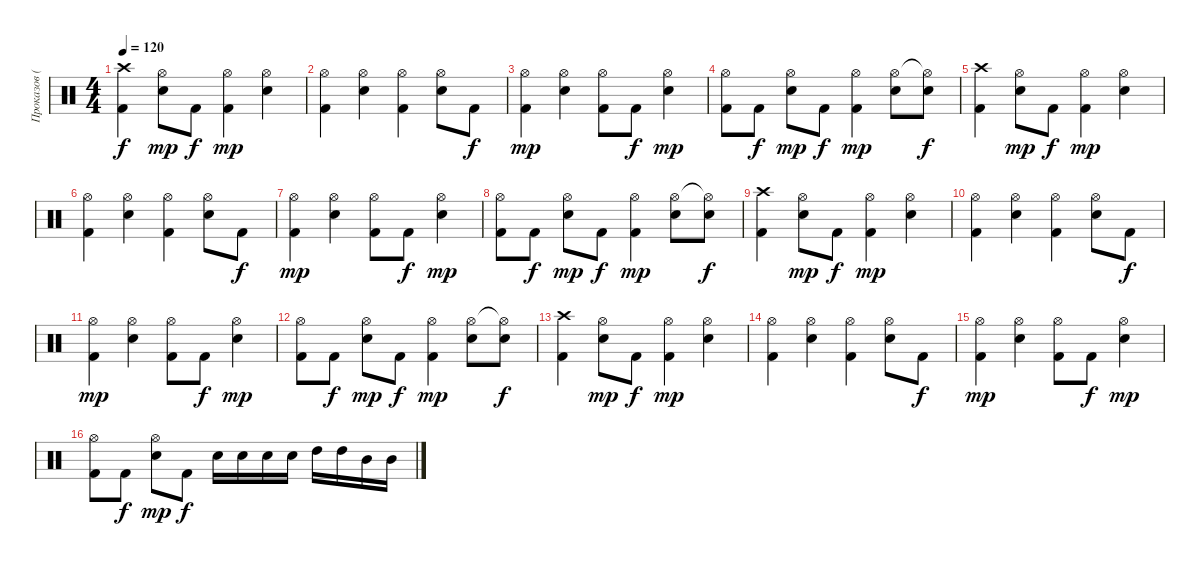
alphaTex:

\track ("Проказов (ударные)" "Проказов (") {instrument percussion}
\staff {score}
\articulation defaults
\ts (4 4)
\tempo 120
\clef neutral
\ks c
("Crash high (hit)" "Kick (hit) 2").4{dy f} ("Hi-Hat (open)" "Snare (hit) 2").8{dy mp} "Kick (hit) 2".8{dy f} ("Hi-Hat (open)" "Kick (hit) 2").4{dy mp} ("Hi-Hat (open)" "Snare (hit) 2").4 |
("Hi-Hat (open)" "Kick (hit) 2").4 ("Hi-Hat (open)" "Snare (hit) 2").4 ("Hi-Hat (open)" "Kick (hit) 2").4 ("Hi-Hat (open)" "Snare (hit) 2").8 "Kick (hit) 2".8{dy f} |
("Hi-Hat (open)" "Kick (hit) 2").4{dy mp} ("Hi-Hat (open)" "Snare (hit) 2").4 ("Hi-Hat (open)" "Kick (hit) 2").8 "Kick (hit) 2".8{dy f} ("Hi-Hat (open)" "Snare (hit) 2").4{dy mp} |
("Hi-Hat (open)" "Kick (hit) 2").8 "Kick (hit) 2".8{dy f} ("Hi-Hat (open)" "Snare (hit) 2").8{dy mp} "Kick (hit) 2".8{dy f} ("Hi-Hat (open)" "Kick (hit) 2").4{dy mp} ("Hi-Hat (open)" "Snare (hit) 2").8 ("Hi-Hat (open)"{t} "Snare (hit) 2").8{dy f} |
("Crash high (hit)" "Kick (hit) 2").4 ("Hi-Hat (open)" "Snare (hit) 2").8{dy mp} "Kick (hit) 2".8{dy f} ("Hi-Hat (open)" "Kick (hit) 2").4{dy mp} ("Hi-Hat (open)" "Snare (hit) 2").4 |
("Hi-Hat (open)" "Kick (hit) 2").4 ("Hi-Hat (open)" "Snare (hit) 2").4 ("Hi-Hat (open)" "Kick (hit) 2").4 ("Hi-Hat (open)" "Snare (hit) 2").8 "Kick (hit) 2".8{dy f} |
("Hi-Hat (open)" "Kick (hit) 2").4{dy mp} ("Hi-Hat (open)" "Snare (hit) 2").4 ("Hi-Hat (open)" "Kick (hit) 2").8 "Kick (hit) 2".8{dy f} ("Hi-Hat (open)" "Snare (hit) 2").4{dy mp} |
("Hi-Hat (open)" "Kick (hit) 2").8 "Kick (hit) 2".8{dy f} ("Hi-Hat (open)" "Snare (hit) 2").8{dy mp} "Kick (hit) 2".8{dy f} ("Hi-Hat (open)" "Kick (hit) 2").4{dy mp} ("Hi-Hat (open)" "Snare (hit) 2").8 ("Hi-Hat (open)"{t} "Snare (hit) 2").8{dy f} |
("Crash high (hit)" "Kick (hit) 2").4 ("Hi-Hat (open)" "Snare (hit) 2").8{dy mp} "Kick (hit) 2".8{dy f} ("Hi-Hat (open)" "Kick (hit) 2").4{dy mp} ("Hi-Hat (open)" "Snare (hit) 2").4 |
("Hi-Hat (open)" "Kick (hit) 2").4 ("Hi-Hat (open)" "Snare (hit) 2").4 ("Hi-Hat (open)" "Kick (hit) 2").4 ("Hi-Hat (open)" "Snare (hit) 2").8 "Kick (hit) 2".8{dy f} |
("Hi-Hat (open)" "Kick (hit) 2").4{dy mp} ("Hi-Hat (open)" "Snare (hit) 2").4 ("Hi-Hat (open)" "Kick (hit) 2").8 "Kick (hit) 2".8{dy f} ("Hi-Hat (open)" "Snare (hit) 2").4{dy mp} |
("Hi-Hat (open)" "Kick (hit) 2").8 "Kick (hit) 2".8{dy f} ("Hi-Hat (open)" "Snare (hit) 2").8{dy mp} "Kick (hit) 2".8{dy f} ("Hi-Hat (open)" "Kick (hit) 2").4{dy mp} ("Hi-Hat (open)" "Snare (hit) 2").8 ("Hi-Hat (open)"{t} "Snare (hit) 2").8{dy f} |
("Crash high (hit)" "Kick (hit) 2").4 ("Hi-Hat (open)" "Snare (hit) 2").8{dy mp} "Kick (hit) 2".8{dy f} ("Hi-Hat (open)" "Kick (hit) 2").4{dy mp} ("Hi-Hat (open)" "Snare (hit) 2").4 |
("Hi-Hat (open)" "Kick (hit) 2").4 ("Hi-Hat (open)" "Snare (hit) 2").4 ("Hi-Hat (open)" "Kick (hit) 2").4 ("Hi-Hat (open)" "Snare (hit) 2").8 "Kick (hit) 2".8{dy f} |
("Hi-Hat (open)" "Kick (hit) 2").4{dy mp} ("Hi-Hat (open)" "Snare (hit) 2").4 ("Hi-Hat (open)" "Kick (hit) 2").8 "Kick (hit) 2".8{dy f} ("Hi-Hat (open)" "Snare (hit) 2").4{dy mp} |
("Hi-Hat (open)" "Kick (hit) 2").8 "Kick (hit) 2".8{dy f} ("Hi-Hat (open)" "Snare (hit) 2").8{dy mp} "Kick (hit) 2".8{dy f} "Snare (hit) 2".16 "Snare (hit) 2".16 "Snare (hit) 2".16 "Snare (hit) 2".16 "High Tom (hit)".16 "High Tom (hit)".16 "Mid Tom (hit)".16 "Mid Tom (hit)".16
